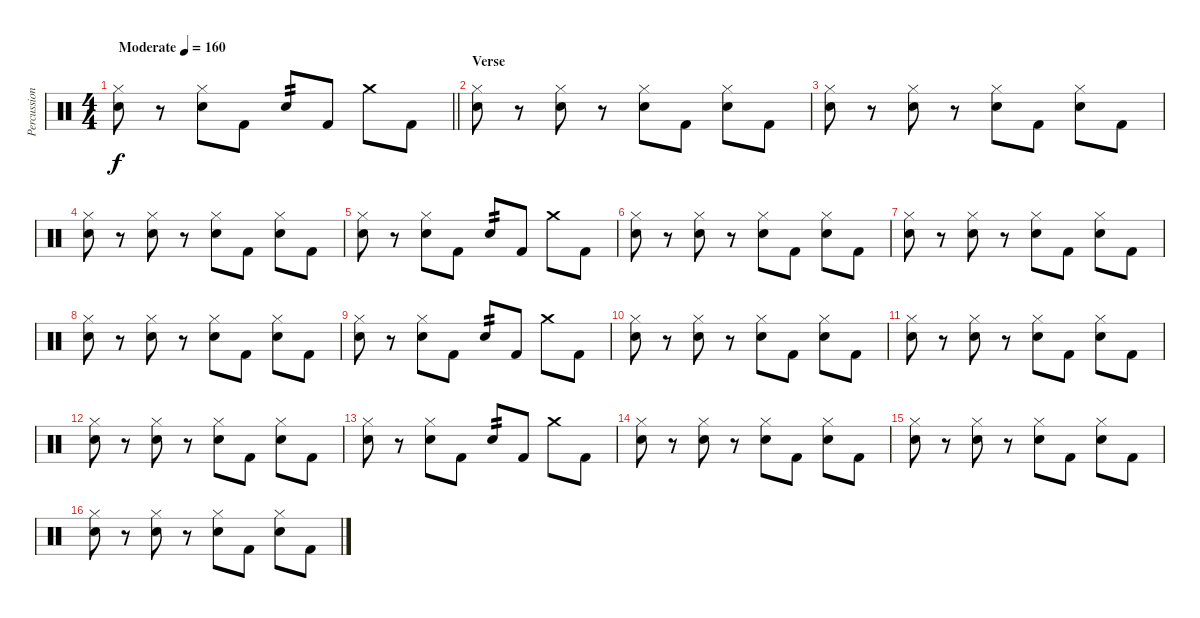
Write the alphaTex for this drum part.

\track ("Percussion" "Percussion") {instrument percussion}
\staff {score}
\articulation defaults
\ts (4 4)
\tempo (160 "Moderate")
\clef neutral
\barLineRight lightlight
\ks c
("Hi-Hat (closed)" "Snare (hit) 2").8{dy f} r.8 ("Hi-Hat (closed)" "Snare (hit) 2").8 "Kick (hit) 2".8 "Snare (hit) 2".8{tp 2} "Kick (hit) 2".8 "Crash medium (hit)".8 "Kick (hit) 2".8 |
\section ("" "Verse")
("Hi-Hat (closed)" "Snare (hit) 2").8 r.8 ("Hi-Hat (closed)" "Snare (hit) 2").8 r.8 ("Hi-Hat (closed)" "Snare (hit) 2").8 "Kick (hit) 2".8 ("Hi-Hat (closed)" "Snare (hit) 2").8 "Kick (hit) 2".8 |
("Hi-Hat (closed)" "Snare (hit) 2").8 r.8 ("Hi-Hat (closed)" "Snare (hit) 2").8 r.8 ("Hi-Hat (closed)" "Snare (hit) 2").8 "Kick (hit) 2".8 ("Hi-Hat (closed)" "Snare (hit) 2").8 "Kick (hit) 2".8 |
("Hi-Hat (closed)" "Snare (hit) 2").8 r.8 ("Hi-Hat (closed)" "Snare (hit) 2").8 r.8 ("Hi-Hat (closed)" "Snare (hit) 2").8 "Kick (hit) 2".8 ("Hi-Hat (closed)" "Snare (hit) 2").8 "Kick (hit) 2".8 |
("Hi-Hat (closed)" "Snare (hit) 2").8 r.8 ("Hi-Hat (closed)" "Snare (hit) 2").8 "Kick (hit) 2".8 "Snare (hit) 2".8{tp 2} "Kick (hit) 2".8 "Crash medium (hit)".8 "Kick (hit) 2".8 |
("Hi-Hat (closed)" "Snare (hit) 2").8 r.8 ("Hi-Hat (closed)" "Snare (hit) 2").8 r.8 ("Hi-Hat (closed)" "Snare (hit) 2").8 "Kick (hit) 2".8 ("Hi-Hat (closed)" "Snare (hit) 2").8 "Kick (hit) 2".8 |
("Hi-Hat (closed)" "Snare (hit) 2").8 r.8 ("Hi-Hat (closed)" "Snare (hit) 2").8 r.8 ("Hi-Hat (closed)" "Snare (hit) 2").8 "Kick (hit) 2".8 ("Hi-Hat (closed)" "Snare (hit) 2").8 "Kick (hit) 2".8 |
("Hi-Hat (closed)" "Snare (hit) 2").8 r.8 ("Hi-Hat (closed)" "Snare (hit) 2").8 r.8 ("Hi-Hat (closed)" "Snare (hit) 2").8 "Kick (hit) 2".8 ("Hi-Hat (closed)" "Snare (hit) 2").8 "Kick (hit) 2".8 |
("Hi-Hat (closed)" "Snare (hit) 2").8 r.8 ("Hi-Hat (closed)" "Snare (hit) 2").8 "Kick (hit) 2".8 "Snare (hit) 2".8{tp 2} "Kick (hit) 2".8 "Crash medium (hit)".8 "Kick (hit) 2".8 |
("Hi-Hat (closed)" "Snare (hit) 2").8 r.8 ("Hi-Hat (closed)" "Snare (hit) 2").8 r.8 ("Hi-Hat (closed)" "Snare (hit) 2").8 "Kick (hit) 2".8 ("Hi-Hat (closed)" "Snare (hit) 2").8 "Kick (hit) 2".8 |
("Hi-Hat (closed)" "Snare (hit) 2").8 r.8 ("Hi-Hat (closed)" "Snare (hit) 2").8 r.8 ("Hi-Hat (closed)" "Snare (hit) 2").8 "Kick (hit) 2".8 ("Hi-Hat (closed)" "Snare (hit) 2").8 "Kick (hit) 2".8 |
("Hi-Hat (closed)" "Snare (hit) 2").8 r.8 ("Hi-Hat (closed)" "Snare (hit) 2").8 r.8 ("Hi-Hat (closed)" "Snare (hit) 2").8 "Kick (hit) 2".8 ("Hi-Hat (closed)" "Snare (hit) 2").8 "Kick (hit) 2".8 |
("Hi-Hat (closed)" "Snare (hit) 2").8 r.8 ("Hi-Hat (closed)" "Snare (hit) 2").8 "Kick (hit) 2".8 "Snare (hit) 2".8{tp 2} "Kick (hit) 2".8 "Crash medium (hit)".8 "Kick (hit) 2".8 |
("Hi-Hat (closed)" "Snare (hit) 2").8 r.8 ("Hi-Hat (closed)" "Snare (hit) 2").8 r.8 ("Hi-Hat (closed)" "Snare (hit) 2").8 "Kick (hit) 2".8 ("Hi-Hat (closed)" "Snare (hit) 2").8 "Kick (hit) 2".8 |
("Hi-Hat (closed)" "Snare (hit) 2").8 r.8 ("Hi-Hat (closed)" "Snare (hit) 2").8 r.8 ("Hi-Hat (closed)" "Snare (hit) 2").8 "Kick (hit) 2".8 ("Hi-Hat (closed)" "Snare (hit) 2").8 "Kick (hit) 2".8 |
("Hi-Hat (closed)" "Snare (hit) 2").8 r.8 ("Hi-Hat (closed)" "Snare (hit) 2").8 r.8 ("Hi-Hat (closed)" "Snare (hit) 2").8 "Kick (hit) 2".8 ("Hi-Hat (closed)" "Snare (hit) 2").8 "Kick (hit) 2".8
